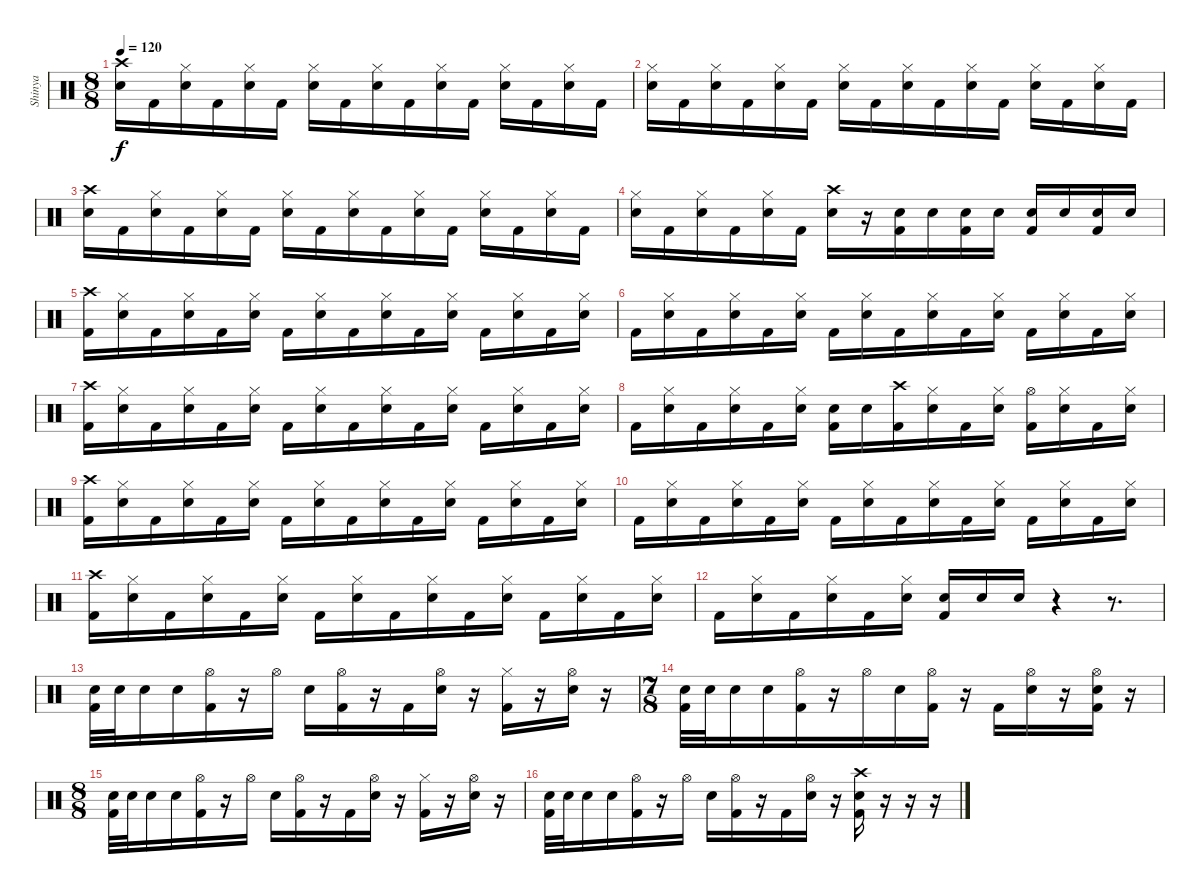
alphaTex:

\track ("Shinya" "Shinya") {instrument percussion}
\staff {score}
\articulation defaults
\ts (8 8)
\tempo 120
\clef neutral
\ks c
("Crash high (hit)" "Snare (hit) 2").16{dy f} "Kick (hit) 2".16 ("Hi-Hat (closed)" "Snare (hit) 2").16 "Kick (hit) 2".16 ("Hi-Hat (closed)" "Snare (hit) 2").16 "Kick (hit) 2".16 ("Hi-Hat (closed)" "Snare (hit) 2").16 "Kick (hit) 2".16 ("Hi-Hat (closed)" "Snare (hit) 2").16 "Kick (hit) 2".16 ("Hi-Hat (closed)" "Snare (hit) 2").16 "Kick (hit) 2".16 ("Hi-Hat (closed)" "Snare (hit) 2").16 "Kick (hit) 2".16 ("Hi-Hat (closed)" "Snare (hit) 2").16 "Kick (hit) 2".16 |
("Hi-Hat (closed)" "Snare (hit) 2").16 "Kick (hit) 2".16 ("Hi-Hat (closed)" "Snare (hit) 2").16 "Kick (hit) 2".16 ("Hi-Hat (closed)" "Snare (hit) 2").16 "Kick (hit) 2".16 ("Hi-Hat (closed)" "Snare (hit) 2").16 "Kick (hit) 2".16 ("Hi-Hat (closed)" "Snare (hit) 2").16 "Kick (hit) 2".16 ("Hi-Hat (closed)" "Snare (hit) 2").16 "Kick (hit) 2".16 ("Hi-Hat (closed)" "Snare (hit) 2").16 "Kick (hit) 2".16 ("Hi-Hat (closed)" "Snare (hit) 2").16 "Kick (hit) 2".16 |
("Crash high (hit)" "Snare (hit) 2").16 "Kick (hit) 2".16 ("Hi-Hat (closed)" "Snare (hit) 2").16 "Kick (hit) 2".16 ("Hi-Hat (closed)" "Snare (hit) 2").16 "Kick (hit) 2".16 ("Hi-Hat (closed)" "Snare (hit) 2").16 "Kick (hit) 2".16 ("Hi-Hat (closed)" "Snare (hit) 2").16 "Kick (hit) 2".16 ("Hi-Hat (closed)" "Snare (hit) 2").16 "Kick (hit) 2".16 ("Hi-Hat (closed)" "Snare (hit) 2").16 "Kick (hit) 2".16 ("Hi-Hat (closed)" "Snare (hit) 2").16 "Kick (hit) 2".16 |
("Hi-Hat (closed)" "Snare (hit) 2").16 "Kick (hit) 2".16 ("Hi-Hat (closed)" "Snare (hit) 2").16 "Kick (hit) 2".16 ("Hi-Hat (closed)" "Snare (hit) 2").16 "Kick (hit) 2".16 ("Crash high (hit)" "Snare (hit) 2").16 r.16 ("Snare (hit) 2" "Kick (hit) 2").16 "Snare (hit) 2".16 ("Snare (hit) 2" "Kick (hit) 2").16 "Snare (hit) 2".16 ("Snare (hit) 2" "Kick (hit) 2").16 "Snare (hit) 2".16 ("Snare (hit) 2" "Kick (hit) 2").16 "Snare (hit) 2".16 |
("Crash high (hit)" "Kick (hit) 2").16 ("Hi-Hat (closed)" "Snare (hit) 2").16 "Kick (hit) 2".16 ("Hi-Hat (closed)" "Snare (hit) 2").16 "Kick (hit) 2".16 ("Hi-Hat (closed)" "Snare (hit) 2").16 "Kick (hit) 2".16 ("Hi-Hat (closed)" "Snare (hit) 2").16 "Kick (hit) 2".16 ("Hi-Hat (closed)" "Snare (hit) 2").16 "Kick (hit) 2".16 ("Hi-Hat (closed)" "Snare (hit) 2").16 "Kick (hit) 2".16 ("Hi-Hat (closed)" "Snare (hit) 2").16 "Kick (hit) 2".16 ("Hi-Hat (closed)" "Snare (hit) 2").16 |
"Kick (hit) 2".16 ("Hi-Hat (closed)" "Snare (hit) 2").16 "Kick (hit) 2".16 ("Hi-Hat (closed)" "Snare (hit) 2").16 "Kick (hit) 2".16 ("Hi-Hat (closed)" "Snare (hit) 2").16 "Kick (hit) 2".16 ("Hi-Hat (closed)" "Snare (hit) 2").16 "Kick (hit) 2".16 ("Hi-Hat (closed)" "Snare (hit) 2").16 "Kick (hit) 2".16 ("Hi-Hat (closed)" "Snare (hit) 2").16 "Kick (hit) 2".16 ("Hi-Hat (closed)" "Snare (hit) 2").16 "Kick (hit) 2".16 ("Hi-Hat (closed)" "Snare (hit) 2").16 |
("Crash high (hit)" "Kick (hit) 2").16 ("Hi-Hat (closed)" "Snare (hit) 2").16 "Kick (hit) 2".16 ("Hi-Hat (closed)" "Snare (hit) 2").16 "Kick (hit) 2".16 ("Hi-Hat (closed)" "Snare (hit) 2").16 "Kick (hit) 2".16 ("Hi-Hat (closed)" "Snare (hit) 2").16 "Kick (hit) 2".16 ("Hi-Hat (closed)" "Snare (hit) 2").16 "Kick (hit) 2".16 ("Hi-Hat (closed)" "Snare (hit) 2").16 "Kick (hit) 2".16 ("Hi-Hat (closed)" "Snare (hit) 2").16 "Kick (hit) 2".16 ("Hi-Hat (closed)" "Snare (hit) 2").16 |
"Kick (hit) 2".16 ("Hi-Hat (closed)" "Snare (hit) 2").16 "Kick (hit) 2".16 ("Hi-Hat (closed)" "Snare (hit) 2").16 "Kick (hit) 2".16 ("Hi-Hat (closed)" "Snare (hit) 2").16 ("Snare (hit) 2" "Kick (hit) 2").16 "Snare (hit) 2".16 ("Crash high (hit)" "Kick (hit) 2").16 ("Hi-Hat (closed)" "Snare (hit) 2").16 "Kick (hit) 2".16 ("Hi-Hat (closed)" "Snare (hit) 2").16 ("Hi-Hat (open)" "Kick (hit) 2").16 ("Hi-Hat (closed)" "Snare (hit) 2").16 "Kick (hit) 2".16 ("Hi-Hat (closed)" "Snare (hit) 2").16 |
("Crash high (hit)" "Kick (hit) 2").16 ("Hi-Hat (closed)" "Snare (hit) 2").16 "Kick (hit) 2".16 ("Hi-Hat (closed)" "Snare (hit) 2").16 "Kick (hit) 2".16 ("Hi-Hat (closed)" "Snare (hit) 2").16 "Kick (hit) 2".16 ("Hi-Hat (closed)" "Snare (hit) 2").16 "Kick (hit) 2".16 ("Hi-Hat (closed)" "Snare (hit) 2").16 "Kick (hit) 2".16 ("Hi-Hat (closed)" "Snare (hit) 2").16 "Kick (hit) 2".16 ("Hi-Hat (closed)" "Snare (hit) 2").16 "Kick (hit) 2".16 ("Hi-Hat (closed)" "Snare (hit) 2").16 |
"Kick (hit) 2".16 ("Hi-Hat (closed)" "Snare (hit) 2").16 "Kick (hit) 2".16 ("Hi-Hat (closed)" "Snare (hit) 2").16 "Kick (hit) 2".16 ("Hi-Hat (closed)" "Snare (hit) 2").16 "Kick (hit) 2".16 ("Hi-Hat (closed)" "Snare (hit) 2").16 "Kick (hit) 2".16 ("Hi-Hat (closed)" "Snare (hit) 2").16 "Kick (hit) 2".16 ("Hi-Hat (closed)" "Snare (hit) 2").16 "Kick (hit) 2".16 ("Hi-Hat (closed)" "Snare (hit) 2").16 "Kick (hit) 2".16 ("Hi-Hat (closed)" "Snare (hit) 2").16 |
("Crash high (hit)" "Kick (hit) 2").16 ("Hi-Hat (closed)" "Snare (hit) 2").16 "Kick (hit) 2".16 ("Hi-Hat (closed)" "Snare (hit) 2").16 "Kick (hit) 2".16 ("Hi-Hat (closed)" "Snare (hit) 2").16 "Kick (hit) 2".16 ("Hi-Hat (closed)" "Snare (hit) 2").16 "Kick (hit) 2".16 ("Hi-Hat (closed)" "Snare (hit) 2").16 "Kick (hit) 2".16 ("Hi-Hat (closed)" "Snare (hit) 2").16 "Kick (hit) 2".16 ("Hi-Hat (closed)" "Snare (hit) 2").16 "Kick (hit) 2".16 ("Hi-Hat (closed)" "Snare (hit) 2").16 |
"Kick (hit) 2".16 ("Hi-Hat (closed)" "Snare (hit) 2").16 "Kick (hit) 2".16 ("Hi-Hat (closed)" "Snare (hit) 2").16 "Kick (hit) 2".16 ("Hi-Hat (closed)" "Snare (hit) 2").16 ("Snare (hit) 2" "Kick (hit) 2").16 "Snare (hit) 2".16 "Snare (hit) 2".16 r.4 r.8{d} |
("Snare (hit) 2" "Kick (hit) 2").32 "Snare (hit) 2".32 "Snare (hit) 2".16 "Snare (hit) 2".16 ("Hi-Hat (open)" "Kick (hit) 2").16 r.16 "Hi-Hat (open)".16 "Snare (hit) 2".16 ("Hi-Hat (open)" "Kick (hit) 2").16 r.16 "Kick (hit) 2".16 ("Hi-Hat (open)" "Snare (hit) 2").16 r.16 ("Hi-Hat (closed)" "Kick (hit) 2").16 r.16 ("Hi-Hat (open)" "Snare (hit) 2").16 r.16 |
\ts (7 8)
("Snare (hit) 2" "Kick (hit) 2").32 "Snare (hit) 2".32 "Snare (hit) 2".16 "Snare (hit) 2".16 ("Hi-Hat (open)" "Kick (hit) 2").16 r.16 "Hi-Hat (open)".16 "Snare (hit) 2".16 ("Hi-Hat (open)" "Kick (hit) 2").16 r.16 "Kick (hit) 2".16 ("Hi-Hat (open)" "Snare (hit) 2").16 r.16 ("Hi-Hat (open)" "Snare (hit) 2" "Kick (hit) 2").16 r.16 |
\ts (8 8)
("Snare (hit) 2" "Kick (hit) 2").32 "Snare (hit) 2".32 "Snare (hit) 2".16 "Snare (hit) 2".16 ("Hi-Hat (open)" "Kick (hit) 2").16 r.16 "Hi-Hat (open)".16 "Snare (hit) 2".16 ("Hi-Hat (open)" "Kick (hit) 2").16 r.16 "Kick (hit) 2".16 ("Hi-Hat (open)" "Snare (hit) 2").16 r.16 ("Hi-Hat (closed)" "Kick (hit) 2").16 r.16 ("Hi-Hat (open)" "Snare (hit) 2").16 r.16 |
("Snare (hit) 2" "Kick (hit) 2").32 "Snare (hit) 2".32 "Snare (hit) 2".16 "Snare (hit) 2".16 ("Hi-Hat (open)" "Kick (hit) 2").16 r.16 "Hi-Hat (open)".16 "Snare (hit) 2".16 ("Hi-Hat (open)" "Kick (hit) 2").16 r.16 "Kick (hit) 2".16 ("Hi-Hat (open)" "Snare (hit) 2").16 r.16 ("Crash high (hit)" "Snare (hit) 2" "Kick (hit) 2").16 r.16 r.16 r.16
